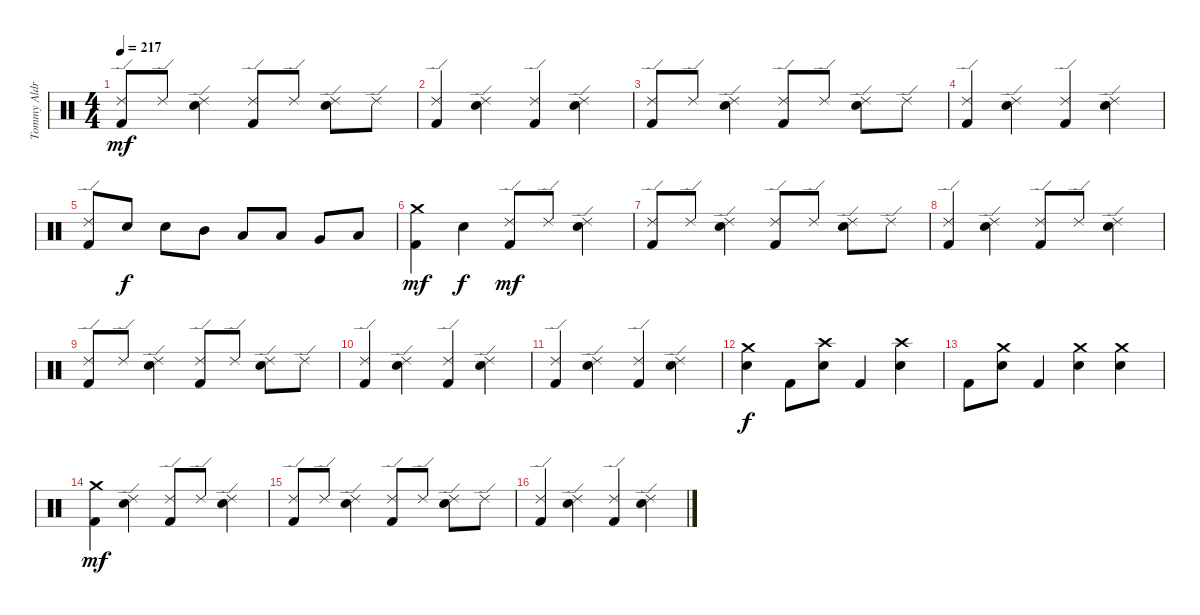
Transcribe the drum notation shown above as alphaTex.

\track ("Tommy Aldridge" "Tommy Aldr") {instrument percussion}
\staff {score}
\articulation defaults
\ts (4 4)
\tempo 217
\clef neutral
\ks c
("Kick (hit) 2" "Ride (edge) 2").8{dy mf} "Ride (edge) 2".8 ("Ride (edge) 2" "Snare (hit) 2").4 ("Kick (hit) 2" "Ride (edge) 2").8 "Ride (edge) 2".8 ("Ride (edge) 2" "Snare (hit) 2").8 "Ride (edge) 2".8 |
("Kick (hit) 2" "Ride (edge) 2").4 ("Ride (edge) 2" "Snare (hit) 2").4 ("Kick (hit) 2" "Ride (edge) 2").4 ("Ride (edge) 2" "Snare (hit) 2").4 |
("Kick (hit) 2" "Ride (edge) 2").8 "Ride (edge) 2".8 ("Ride (edge) 2" "Snare (hit) 2").4 ("Kick (hit) 2" "Ride (edge) 2").8 "Ride (edge) 2".8 ("Ride (edge) 2" "Snare (hit) 2").8 "Ride (edge) 2".8 |
("Kick (hit) 2" "Ride (edge) 2").4 ("Ride (edge) 2" "Snare (hit) 2").4 ("Kick (hit) 2" "Ride (edge) 2").4 ("Ride (edge) 2" "Snare (hit) 2").4 |
("Kick (hit) 2" "Ride (edge) 2").8 "Snare (hit) 2".8{dy f} "Snare (hit) 2".8 "Mid Tom (hit)".8 "Low Tom (hit)".8 "Low Tom (hit)".8 "Very Low Tom (hit)".8 "Low Floor Tom (hit)".8 |
("Kick (hit) 2" "Crash medium (hit)").4{dy mf} "Snare (hit) 2".4{dy f} ("Kick (hit) 2" "Ride (edge) 2").8{dy mf} "Ride (edge) 2".8 ("Ride (edge) 2" "Snare (hit) 2").4 |
("Kick (hit) 2" "Ride (edge) 2").8 "Ride (edge) 2".8 ("Ride (edge) 2" "Snare (hit) 2").4 ("Kick (hit) 2" "Ride (edge) 2").8 "Ride (edge) 2".8 ("Ride (edge) 2" "Snare (hit) 2").8 "Ride (edge) 2".8 |
("Kick (hit) 2" "Ride (edge) 2").4 ("Ride (edge) 2" "Snare (hit) 2").4 ("Kick (hit) 2" "Ride (edge) 2").8 "Ride (edge) 2".8 ("Ride (edge) 2" "Snare (hit) 2").4 |
("Kick (hit) 2" "Ride (edge) 2").8 "Ride (edge) 2".8 ("Ride (edge) 2" "Snare (hit) 2").4 ("Kick (hit) 2" "Ride (edge) 2").8 "Ride (edge) 2".8 ("Ride (edge) 2" "Snare (hit) 2").8 "Ride (edge) 2".8 |
("Kick (hit) 2" "Ride (edge) 2").4 ("Ride (edge) 2" "Snare (hit) 2").4 ("Kick (hit) 2" "Ride (edge) 2").4 ("Ride (edge) 2" "Snare (hit) 2").4 |
("Kick (hit) 2" "Ride (edge) 2").4 ("Ride (edge) 2" "Snare (hit) 2").4 ("Kick (hit) 2" "Ride (edge) 2").4 ("Ride (edge) 2" "Snare (hit) 2").4 |
("Crash medium (hit)" "Snare (hit) 2").4{dy f} "Kick (hit) 2".8 ("Crash high (hit)" "Snare (hit) 2").8 "Kick (hit) 2".4 ("Crash high (hit)" "Snare (hit) 2").4 |
"Kick (hit) 2".8 ("Crash medium (hit)" "Snare (hit) 2").8 "Kick (hit) 2".4 ("Crash medium (hit)" "Snare (hit) 2").4 ("Crash medium (hit)" "Snare (hit) 2").4 |
("Kick (hit) 2" "Crash medium (hit)").4{dy mf} ("Ride (edge) 2" "Snare (hit) 2").4 ("Kick (hit) 2" "Ride (edge) 2").8 "Ride (edge) 2".8 ("Ride (edge) 2" "Snare (hit) 2").4 |
("Kick (hit) 2" "Ride (edge) 2").8 "Ride (edge) 2".8 ("Ride (edge) 2" "Snare (hit) 2").4 ("Kick (hit) 2" "Ride (edge) 2").8 "Ride (edge) 2".8 ("Ride (edge) 2" "Snare (hit) 2").8 "Ride (edge) 2".8 |
("Kick (hit) 2" "Ride (edge) 2").4 ("Ride (edge) 2" "Snare (hit) 2").4 ("Kick (hit) 2" "Ride (edge) 2").4 ("Ride (edge) 2" "Snare (hit) 2").4
